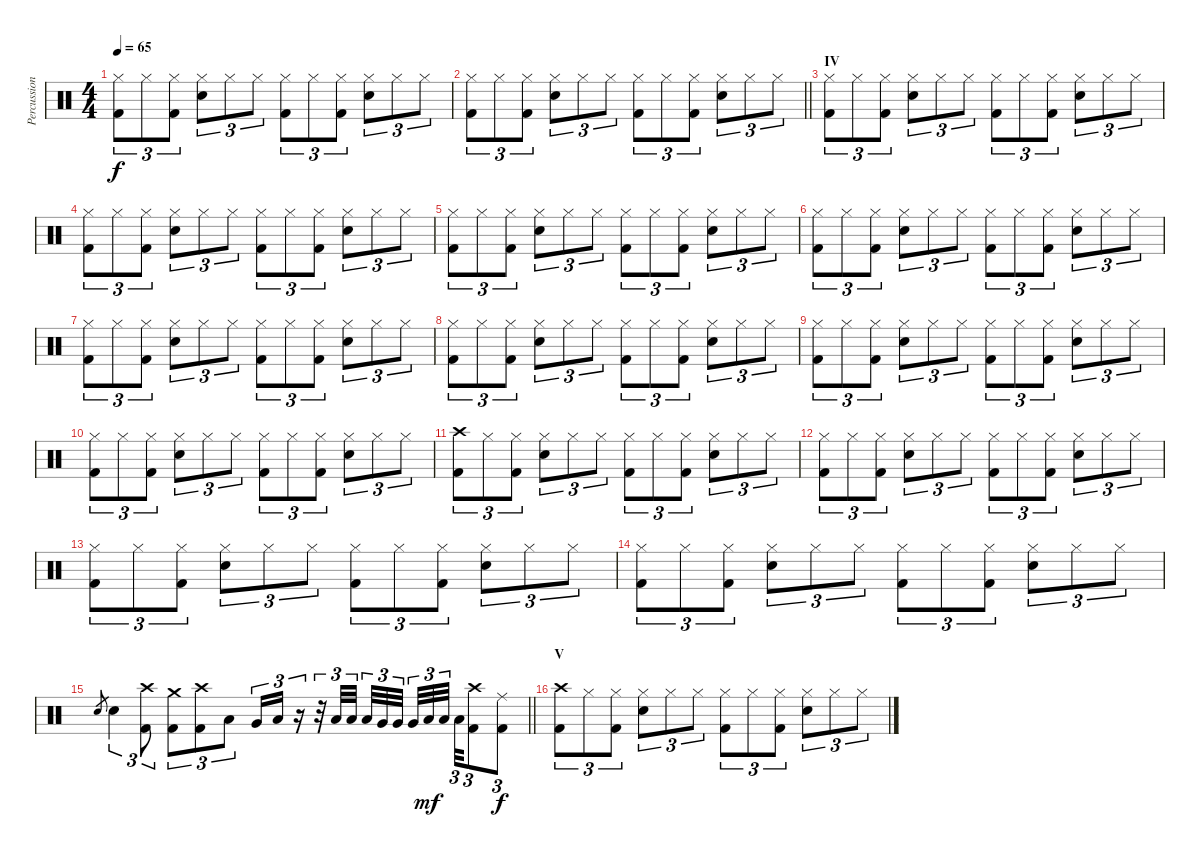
\track ("Percussion" "Percussion") {instrument percussion}
\staff {score}
\articulation defaults
\ts (4 4)
\tempo 65
\clef neutral
\ks c
("Hi-Hat (closed)" "Kick (hit) 2").8{tu (3 2) dy f} "Hi-Hat (closed)".8{tu (3 2)} ("Hi-Hat (closed)" "Kick (hit) 2").8{tu (3 2)} ("Hi-Hat (closed)" "Snare (hit) 2").8{tu (3 2)} "Hi-Hat (closed)".8{tu (3 2)} "Hi-Hat (closed)".8{tu (3 2)} ("Hi-Hat (closed)" "Kick (hit) 2").8{tu (3 2)} "Hi-Hat (closed)".8{tu (3 2)} ("Hi-Hat (closed)" "Kick (hit) 2").8{tu (3 2)} ("Hi-Hat (closed)" "Snare (hit) 2").8{tu (3 2)} "Hi-Hat (closed)".8{tu (3 2)} "Hi-Hat (closed)".8{tu (3 2)} |
\barLineRight lightlight
("Hi-Hat (closed)" "Kick (hit) 2").8{tu (3 2)} "Hi-Hat (closed)".8{tu (3 2)} ("Hi-Hat (closed)" "Kick (hit) 2").8{tu (3 2)} ("Hi-Hat (closed)" "Snare (hit) 2").8{tu (3 2)} "Hi-Hat (closed)".8{tu (3 2)} "Hi-Hat (closed)".8{tu (3 2)} ("Hi-Hat (closed)" "Kick (hit) 2").8{tu (3 2)} "Hi-Hat (closed)".8{tu (3 2)} ("Hi-Hat (closed)" "Kick (hit) 2").8{tu (3 2)} ("Hi-Hat (closed)" "Snare (hit) 2").8{tu (3 2)} "Hi-Hat (closed)".8{tu (3 2)} "Hi-Hat (closed)".8{tu (3 2)} |
\section ("" "IV")
("Hi-Hat (closed)" "Kick (hit) 2").8{tu (3 2)} "Hi-Hat (closed)".8{tu (3 2)} ("Hi-Hat (closed)" "Kick (hit) 2").8{tu (3 2)} ("Hi-Hat (closed)" "Snare (hit) 2").8{tu (3 2)} "Hi-Hat (closed)".8{tu (3 2)} "Hi-Hat (closed)".8{tu (3 2)} ("Hi-Hat (closed)" "Kick (hit) 2").8{tu (3 2)} "Hi-Hat (closed)".8{tu (3 2)} ("Hi-Hat (closed)" "Kick (hit) 2").8{tu (3 2)} ("Hi-Hat (closed)" "Snare (hit) 2").8{tu (3 2)} "Hi-Hat (closed)".8{tu (3 2)} "Hi-Hat (closed)".8{tu (3 2)} |
("Hi-Hat (closed)" "Kick (hit) 2").8{tu (3 2)} "Hi-Hat (closed)".8{tu (3 2)} ("Hi-Hat (closed)" "Kick (hit) 2").8{tu (3 2)} ("Hi-Hat (closed)" "Snare (hit) 2").8{tu (3 2)} "Hi-Hat (closed)".8{tu (3 2)} "Hi-Hat (closed)".8{tu (3 2)} ("Hi-Hat (closed)" "Kick (hit) 2").8{tu (3 2)} "Hi-Hat (closed)".8{tu (3 2)} ("Hi-Hat (closed)" "Kick (hit) 2").8{tu (3 2)} ("Hi-Hat (closed)" "Snare (hit) 2").8{tu (3 2)} "Hi-Hat (closed)".8{tu (3 2)} "Hi-Hat (closed)".8{tu (3 2)} |
("Hi-Hat (closed)" "Kick (hit) 2").8{tu (3 2)} "Hi-Hat (closed)".8{tu (3 2)} ("Hi-Hat (closed)" "Kick (hit) 2").8{tu (3 2)} ("Hi-Hat (closed)" "Snare (hit) 2").8{tu (3 2)} "Hi-Hat (closed)".8{tu (3 2)} "Hi-Hat (closed)".8{tu (3 2)} ("Hi-Hat (closed)" "Kick (hit) 2").8{tu (3 2)} "Hi-Hat (closed)".8{tu (3 2)} ("Hi-Hat (closed)" "Kick (hit) 2").8{tu (3 2)} ("Hi-Hat (closed)" "Snare (hit) 2").8{tu (3 2)} "Hi-Hat (closed)".8{tu (3 2)} "Hi-Hat (closed)".8{tu (3 2)} |
("Hi-Hat (closed)" "Kick (hit) 2").8{tu (3 2)} "Hi-Hat (closed)".8{tu (3 2)} ("Hi-Hat (closed)" "Kick (hit) 2").8{tu (3 2)} ("Hi-Hat (closed)" "Snare (hit) 2").8{tu (3 2)} "Hi-Hat (closed)".8{tu (3 2)} "Hi-Hat (closed)".8{tu (3 2)} ("Hi-Hat (closed)" "Kick (hit) 2").8{tu (3 2)} "Hi-Hat (closed)".8{tu (3 2)} ("Hi-Hat (closed)" "Kick (hit) 2").8{tu (3 2)} ("Hi-Hat (closed)" "Snare (hit) 2").8{tu (3 2)} "Hi-Hat (closed)".8{tu (3 2)} "Hi-Hat (closed)".8{tu (3 2)} |
("Hi-Hat (closed)" "Kick (hit) 2").8{tu (3 2)} "Hi-Hat (closed)".8{tu (3 2)} ("Hi-Hat (closed)" "Kick (hit) 2").8{tu (3 2)} ("Hi-Hat (closed)" "Snare (hit) 2").8{tu (3 2)} "Hi-Hat (closed)".8{tu (3 2)} "Hi-Hat (closed)".8{tu (3 2)} ("Hi-Hat (closed)" "Kick (hit) 2").8{tu (3 2)} "Hi-Hat (closed)".8{tu (3 2)} ("Hi-Hat (closed)" "Kick (hit) 2").8{tu (3 2)} ("Hi-Hat (closed)" "Snare (hit) 2").8{tu (3 2)} "Hi-Hat (closed)".8{tu (3 2)} "Hi-Hat (closed)".8{tu (3 2)} |
("Hi-Hat (closed)" "Kick (hit) 2").8{tu (3 2)} "Hi-Hat (closed)".8{tu (3 2)} ("Hi-Hat (closed)" "Kick (hit) 2").8{tu (3 2)} ("Hi-Hat (closed)" "Snare (hit) 2").8{tu (3 2)} "Hi-Hat (closed)".8{tu (3 2)} "Hi-Hat (closed)".8{tu (3 2)} ("Hi-Hat (closed)" "Kick (hit) 2").8{tu (3 2)} "Hi-Hat (closed)".8{tu (3 2)} ("Hi-Hat (closed)" "Kick (hit) 2").8{tu (3 2)} ("Hi-Hat (closed)" "Snare (hit) 2").8{tu (3 2)} "Hi-Hat (closed)".8{tu (3 2)} "Hi-Hat (closed)".8{tu (3 2)} |
("Hi-Hat (closed)" "Kick (hit) 2").8{tu (3 2)} "Hi-Hat (closed)".8{tu (3 2)} ("Hi-Hat (closed)" "Kick (hit) 2").8{tu (3 2)} ("Hi-Hat (closed)" "Snare (hit) 2").8{tu (3 2)} "Hi-Hat (closed)".8{tu (3 2)} "Hi-Hat (closed)".8{tu (3 2)} ("Hi-Hat (closed)" "Kick (hit) 2").8{tu (3 2)} "Hi-Hat (closed)".8{tu (3 2)} ("Hi-Hat (closed)" "Kick (hit) 2").8{tu (3 2)} ("Hi-Hat (closed)" "Snare (hit) 2").8{tu (3 2)} "Hi-Hat (closed)".8{tu (3 2)} "Hi-Hat (closed)".8{tu (3 2)} |
("Hi-Hat (closed)" "Kick (hit) 2").8{tu (3 2)} "Hi-Hat (closed)".8{tu (3 2)} ("Hi-Hat (closed)" "Kick (hit) 2").8{tu (3 2)} ("Hi-Hat (closed)" "Snare (hit) 2").8{tu (3 2)} "Hi-Hat (closed)".8{tu (3 2)} "Hi-Hat (closed)".8{tu (3 2)} ("Hi-Hat (closed)" "Kick (hit) 2").8{tu (3 2)} "Hi-Hat (closed)".8{tu (3 2)} ("Hi-Hat (closed)" "Kick (hit) 2").8{tu (3 2)} ("Hi-Hat (closed)" "Snare (hit) 2").8{tu (3 2)} "Hi-Hat (closed)".8{tu (3 2)} "Hi-Hat (closed)".8{tu (3 2)} |
("Crash high (hit)" "Kick (hit) 2").8{tu (3 2)} "Hi-Hat (closed)".8{tu (3 2)} ("Hi-Hat (closed)" "Kick (hit) 2").8{tu (3 2)} ("Hi-Hat (closed)" "Snare (hit) 2").8{tu (3 2)} "Hi-Hat (closed)".8{tu (3 2)} "Hi-Hat (closed)".8{tu (3 2)} ("Hi-Hat (closed)" "Kick (hit) 2").8{tu (3 2)} "Hi-Hat (closed)".8{tu (3 2)} ("Hi-Hat (closed)" "Kick (hit) 2").8{tu (3 2)} ("Hi-Hat (closed)" "Snare (hit) 2").8{tu (3 2)} "Hi-Hat (closed)".8{tu (3 2)} "Hi-Hat (closed)".8{tu (3 2)} |
("Hi-Hat (closed)" "Kick (hit) 2").8{tu (3 2)} "Hi-Hat (closed)".8{tu (3 2)} ("Hi-Hat (closed)" "Kick (hit) 2").8{tu (3 2)} ("Hi-Hat (closed)" "Snare (hit) 2").8{tu (3 2)} "Hi-Hat (closed)".8{tu (3 2)} "Hi-Hat (closed)".8{tu (3 2)} ("Hi-Hat (closed)" "Kick (hit) 2").8{tu (3 2)} "Hi-Hat (closed)".8{tu (3 2)} ("Hi-Hat (closed)" "Kick (hit) 2").8{tu (3 2)} ("Hi-Hat (closed)" "Snare (hit) 2").8{tu (3 2)} "Hi-Hat (closed)".8{tu (3 2)} "Hi-Hat (closed)".8{tu (3 2)} |
("Hi-Hat (closed)" "Kick (hit) 2").8{tu (3 2)} "Hi-Hat (closed)".8{tu (3 2)} ("Hi-Hat (closed)" "Kick (hit) 2").8{tu (3 2)} ("Hi-Hat (closed)" "Snare (hit) 2").8{tu (3 2)} "Hi-Hat (closed)".8{tu (3 2)} "Hi-Hat (closed)".8{tu (3 2)} ("Hi-Hat (closed)" "Kick (hit) 2").8{tu (3 2)} "Hi-Hat (closed)".8{tu (3 2)} ("Hi-Hat (closed)" "Kick (hit) 2").8{tu (3 2)} ("Hi-Hat (closed)" "Snare (hit) 2").8{tu (3 2)} "Hi-Hat (closed)".8{tu (3 2)} "Hi-Hat (closed)".8{tu (3 2)} |
("Hi-Hat (closed)" "Kick (hit) 2").8{tu (3 2)} "Hi-Hat (closed)".8{tu (3 2)} ("Hi-Hat (closed)" "Kick (hit) 2").8{tu (3 2)} ("Hi-Hat (closed)" "Snare (hit) 2").8{tu (3 2)} "Hi-Hat (closed)".8{tu (3 2)} "Hi-Hat (closed)".8{tu (3 2)} ("Hi-Hat (closed)" "Kick (hit) 2").8{tu (3 2)} "Hi-Hat (closed)".8{tu (3 2)} ("Hi-Hat (closed)" "Kick (hit) 2").8{tu (3 2)} ("Hi-Hat (closed)" "Snare (hit) 2").8{tu (3 2)} "Hi-Hat (closed)".8{tu (3 2)} "Hi-Hat (closed)".8{tu (3 2)} |
\barLineRight lightlight "Snare (hit) 2".8{gr} "Snare (hit) 2".4{tu (3 2)}
("Crash high (hit)" "Kick (hit) 2").8{tu (3 2)} ("Crash medium (hit)" "Kick (hit) 2").8{tu (3 2)} ("Crash high (hit)" "Kick (hit) 2").8{tu (3 2)} "Low Tom (hit)".8{tu (3 2)} "Very Low Tom (hit)".16{tu (3 2)} "Low Floor Tom (hit)".16{tu (3 2)} r.16{tu (3 2)} r.32{tu (3 2)} "Low Tom (hit)".32{tu (3 2)} "Low Tom (hit)".32{tu (3 2) beam splitsecondary} "Low Tom (hit)".32{tu (3 2)} "Very Low Tom (hit)".32{tu (3 2)} "Very Low Tom (hit)".32{tu (3 2)} "Very Low Tom (hit)".32{tu (3 2)} "Low Floor Tom (hit)".32{tu (3 2) dy mf} "Low Floor Tom (hit)".32{tu (3 2) beam splitsecondary} "Low Floor Tom (hit)".32{tu (3 2)} ("Crash high (hit)" "Kick (hit) 2").8{tu (3 2)} ("Ride (middle)" "Kick (hit) 2").8{tu (3 2) dy f} |
\section ("" "V")
("Crash high (hit)" "Kick (hit) 2").8{tu (3 2)} "Hi-Hat (closed)".8{tu (3 2)} ("Hi-Hat (closed)" "Kick (hit) 2").8{tu (3 2)} ("Hi-Hat (closed)" "Snare (hit) 2").8{tu (3 2)} "Hi-Hat (closed)".8{tu (3 2)} "Hi-Hat (closed)".8{tu (3 2)} ("Hi-Hat (closed)" "Kick (hit) 2").8{tu (3 2)} "Hi-Hat (closed)".8{tu (3 2)} ("Hi-Hat (closed)" "Kick (hit) 2").8{tu (3 2)} ("Hi-Hat (closed)" "Snare (hit) 2").8{tu (3 2)} "Hi-Hat (closed)".8{tu (3 2)} "Hi-Hat (closed)".8{tu (3 2)}
